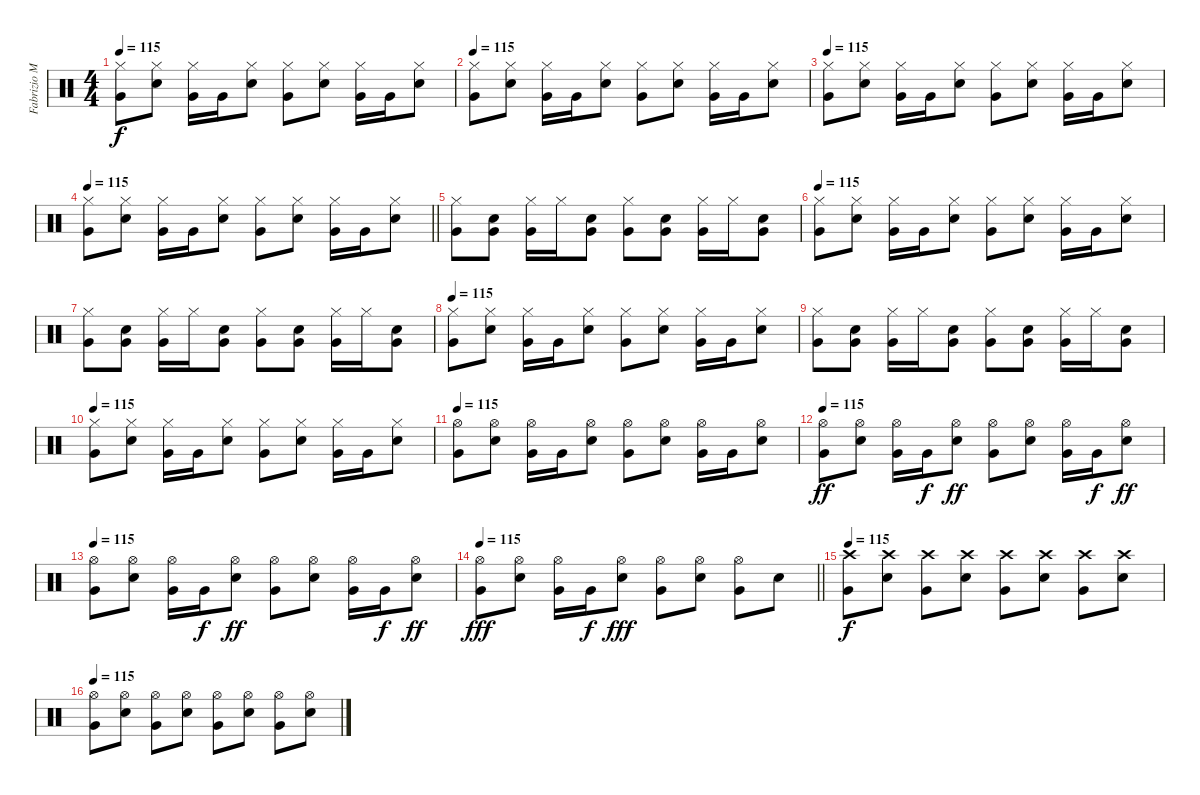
\track ("Fabrizio Moretti" "Fabrizio M") {instrument percussion}
\staff {score}
\articulation defaults
\ts (4 4)
\tempo 115
\clef neutral
\ks c
("Very Low Tom (hit)" "Hi-Hat (closed)").8{dy f} ("Electric Snare (hit)" "Hi-Hat (closed)").8 ("Very Low Tom (hit)" "Hi-Hat (closed)").16 "Very Low Tom (hit)".16 ("Electric Snare (hit)" "Hi-Hat (closed)").8 ("Very Low Tom (hit)" "Hi-Hat (closed)").8 ("Electric Snare (hit)" "Hi-Hat (closed)").8 ("Very Low Tom (hit)" "Hi-Hat (closed)").16 "Very Low Tom (hit)".16 ("Electric Snare (hit)" "Hi-Hat (closed)").8 |
\tempo 115
("Very Low Tom (hit)" "Hi-Hat (closed)").8 ("Electric Snare (hit)" "Hi-Hat (closed)").8 ("Very Low Tom (hit)" "Hi-Hat (closed)").16 "Very Low Tom (hit)".16 ("Electric Snare (hit)" "Hi-Hat (closed)").8 ("Very Low Tom (hit)" "Hi-Hat (closed)").8 ("Electric Snare (hit)" "Hi-Hat (closed)").8 ("Very Low Tom (hit)" "Hi-Hat (closed)").16 "Very Low Tom (hit)".16 ("Electric Snare (hit)" "Hi-Hat (closed)").8 |
\tempo 115
("Very Low Tom (hit)" "Hi-Hat (closed)").8 ("Electric Snare (hit)" "Hi-Hat (closed)").8 ("Very Low Tom (hit)" "Hi-Hat (closed)").16 "Very Low Tom (hit)".16 ("Electric Snare (hit)" "Hi-Hat (closed)").8 ("Very Low Tom (hit)" "Hi-Hat (closed)").8 ("Electric Snare (hit)" "Hi-Hat (closed)").8 ("Very Low Tom (hit)" "Hi-Hat (closed)").16 "Very Low Tom (hit)".16 ("Electric Snare (hit)" "Hi-Hat (closed)").8 |
\tempo 115
\barLineRight lightlight
("Very Low Tom (hit)" "Hi-Hat (closed)").8 ("Electric Snare (hit)" "Hi-Hat (closed)").8 ("Very Low Tom (hit)" "Hi-Hat (closed)").16 "Very Low Tom (hit)".16 ("Electric Snare (hit)" "Hi-Hat (closed)").8 ("Very Low Tom (hit)" "Hi-Hat (closed)").8 ("Electric Snare (hit)" "Hi-Hat (closed)").8 ("Very Low Tom (hit)" "Hi-Hat (closed)").16 "Very Low Tom (hit)".16 ("Electric Snare (hit)" "Hi-Hat (closed)").8 |
("Very Low Tom (hit)" "Hi-Hat (closed)").8 ("Very Low Tom (hit)" "Electric Snare (hit)").8 ("Very Low Tom (hit)" "Hi-Hat (closed)").16 "Hi-Hat (closed)".16 ("Very Low Tom (hit)" "Electric Snare (hit)").8 ("Very Low Tom (hit)" "Hi-Hat (closed)").8 ("Very Low Tom (hit)" "Electric Snare (hit)").8 ("Very Low Tom (hit)" "Hi-Hat (closed)").16 "Hi-Hat (closed)".16 ("Very Low Tom (hit)" "Electric Snare (hit)").8 |
\tempo 115
("Very Low Tom (hit)" "Hi-Hat (closed)").8 ("Electric Snare (hit)" "Hi-Hat (closed)").8 ("Very Low Tom (hit)" "Hi-Hat (closed)").16 "Very Low Tom (hit)".16 ("Electric Snare (hit)" "Hi-Hat (closed)").8 ("Very Low Tom (hit)" "Hi-Hat (closed)").8 ("Electric Snare (hit)" "Hi-Hat (closed)").8 ("Very Low Tom (hit)" "Hi-Hat (closed)").16 "Very Low Tom (hit)".16 ("Electric Snare (hit)" "Hi-Hat (closed)").8 |
("Very Low Tom (hit)" "Hi-Hat (closed)").8 ("Very Low Tom (hit)" "Electric Snare (hit)").8 ("Very Low Tom (hit)" "Hi-Hat (closed)").16 "Hi-Hat (closed)".16 ("Very Low Tom (hit)" "Electric Snare (hit)").8 ("Very Low Tom (hit)" "Hi-Hat (closed)").8 ("Very Low Tom (hit)" "Electric Snare (hit)").8 ("Very Low Tom (hit)" "Hi-Hat (closed)").16 "Hi-Hat (closed)".16 ("Very Low Tom (hit)" "Electric Snare (hit)").8 |
\tempo 115
("Very Low Tom (hit)" "Hi-Hat (closed)").8 ("Electric Snare (hit)" "Hi-Hat (closed)").8 ("Very Low Tom (hit)" "Hi-Hat (closed)").16 "Very Low Tom (hit)".16 ("Electric Snare (hit)" "Hi-Hat (closed)").8 ("Very Low Tom (hit)" "Hi-Hat (closed)").8 ("Electric Snare (hit)" "Hi-Hat (closed)").8 ("Very Low Tom (hit)" "Hi-Hat (closed)").16 "Very Low Tom (hit)".16 ("Electric Snare (hit)" "Hi-Hat (closed)").8 |
("Very Low Tom (hit)" "Hi-Hat (closed)").8 ("Very Low Tom (hit)" "Electric Snare (hit)").8 ("Very Low Tom (hit)" "Hi-Hat (closed)").16 "Hi-Hat (closed)".16 ("Very Low Tom (hit)" "Electric Snare (hit)").8 ("Very Low Tom (hit)" "Hi-Hat (closed)").8 ("Very Low Tom (hit)" "Electric Snare (hit)").8 ("Very Low Tom (hit)" "Hi-Hat (closed)").16 "Hi-Hat (closed)".16 ("Very Low Tom (hit)" "Electric Snare (hit)").8 |
\tempo 115
("Very Low Tom (hit)" "Hi-Hat (closed)").8 ("Electric Snare (hit)" "Hi-Hat (closed)").8 ("Very Low Tom (hit)" "Hi-Hat (closed)").16 "Very Low Tom (hit)".16 ("Electric Snare (hit)" "Hi-Hat (closed)").8 ("Very Low Tom (hit)" "Hi-Hat (closed)").8 ("Electric Snare (hit)" "Hi-Hat (closed)").8 ("Very Low Tom (hit)" "Hi-Hat (closed)").16 "Very Low Tom (hit)".16 ("Electric Snare (hit)" "Hi-Hat (closed)").8 |
\tempo 115
("Very Low Tom (hit)" "Hi-Hat (open)").8 ("Electric Snare (hit)" "Hi-Hat (open)").8 ("Very Low Tom (hit)" "Hi-Hat (open)").16 "Very Low Tom (hit)".16 ("Electric Snare (hit)" "Hi-Hat (open)").8 ("Very Low Tom (hit)" "Hi-Hat (open)").8 ("Electric Snare (hit)" "Hi-Hat (open)").8 ("Very Low Tom (hit)" "Hi-Hat (open)").16 "Very Low Tom (hit)".16 ("Electric Snare (hit)" "Hi-Hat (open)").8 |
\tempo 115
("Very Low Tom (hit)" "Hi-Hat (open)").8{dy ff} ("Electric Snare (hit)" "Hi-Hat (open)").8 ("Very Low Tom (hit)" "Hi-Hat (open)").16 "Very Low Tom (hit)".16{dy f} ("Electric Snare (hit)" "Hi-Hat (open)").8{dy ff} ("Very Low Tom (hit)" "Hi-Hat (open)").8 ("Electric Snare (hit)" "Hi-Hat (open)").8 ("Very Low Tom (hit)" "Hi-Hat (open)").16 "Very Low Tom (hit)".16{dy f} ("Electric Snare (hit)" "Hi-Hat (open)").8{dy ff} |
\tempo 115
("Very Low Tom (hit)" "Hi-Hat (open)").8 ("Electric Snare (hit)" "Hi-Hat (open)").8 ("Very Low Tom (hit)" "Hi-Hat (open)").16 "Very Low Tom (hit)".16{dy f} ("Electric Snare (hit)" "Hi-Hat (open)").8{dy ff} ("Very Low Tom (hit)" "Hi-Hat (open)").8 ("Electric Snare (hit)" "Hi-Hat (open)").8 ("Very Low Tom (hit)" "Hi-Hat (open)").16 "Very Low Tom (hit)".16{dy f} ("Electric Snare (hit)" "Hi-Hat (open)").8{dy ff} |
\tempo 115
\barLineRight lightlight
("Very Low Tom (hit)" "Hi-Hat (open)").8{dy fff} ("Electric Snare (hit)" "Hi-Hat (open)").8 ("Very Low Tom (hit)" "Hi-Hat (open)").16 "Very Low Tom (hit)".16{dy f} ("Electric Snare (hit)" "Hi-Hat (open)").8{dy fff} ("Very Low Tom (hit)" "Hi-Hat (open)").8 ("Electric Snare (hit)" "Hi-Hat (open)").8 ("Very Low Tom (hit)" "Hi-Hat (open)").8 "Electric Snare (hit)".8 |
\tempo 115
("Very Low Tom (hit)" "Crash high (hit)").8{dy f} ("Electric Snare (hit)" "Crash high (hit)").8 ("Very Low Tom (hit)" "Crash high (hit)").8 ("Electric Snare (hit)" "Crash high (hit)").8 ("Very Low Tom (hit)" "Crash high (hit)").8 ("Electric Snare (hit)" "Crash high (hit)").8 ("Very Low Tom (hit)" "Crash high (hit)").8 ("Electric Snare (hit)" "Crash high (hit)").8 |
\tempo 115
("Very Low Tom (hit)" "Hi-Hat (open)").8 ("Electric Snare (hit)" "Hi-Hat (open)").8 ("Very Low Tom (hit)" "Hi-Hat (open)").8 ("Electric Snare (hit)" "Hi-Hat (open)").8 ("Very Low Tom (hit)" "Hi-Hat (open)").8 ("Electric Snare (hit)" "Hi-Hat (open)").8 ("Very Low Tom (hit)" "Hi-Hat (open)").8 ("Electric Snare (hit)" "Hi-Hat (open)").8
